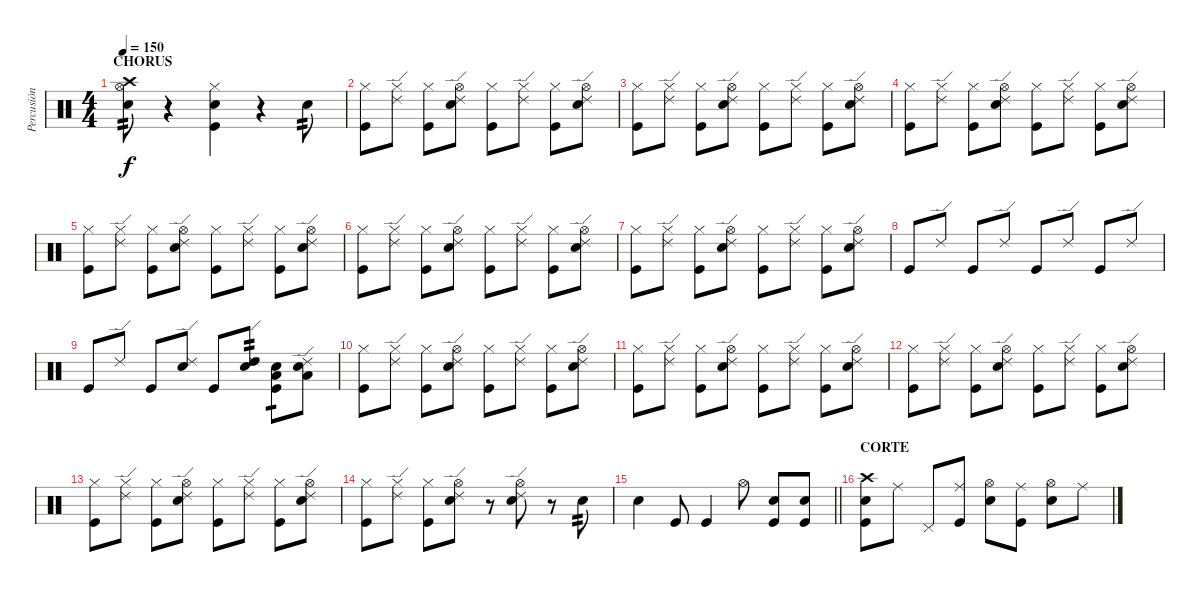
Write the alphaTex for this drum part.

\track ("Percusión" "Percusión") {instrument percussion}
\staff {score}
\articulation defaults
\ts (4 4)
\section ("" "CHORUS")
\tempo 150
\clef neutral
\ks c
("Crash high (hit)" "Snare (hit) 2" "Hi-Hat (open)").8{tp 2 dy f} r.4 ("Kick (hit)" "Snare (hit) 2" "Hi-Hat (closed)").4 r.4 "Snare (hit) 2".8{tp 2} |
("Kick (hit)" "Hi-Hat (closed)").8 ("Ride (edge) 2" "Hi-Hat (closed)").8 ("Kick (hit)" "Hi-Hat (closed)").8 ("Ride (edge) 2" "Snare (hit) 2" "Hi-Hat (open)").8 ("Kick (hit)" "Hi-Hat (closed)").8 ("Ride (edge) 2" "Hi-Hat (closed)").8 ("Kick (hit)" "Hi-Hat (closed)").8 ("Ride (edge) 2" "Snare (hit) 2" "Hi-Hat (open)").8 |
("Kick (hit)" "Hi-Hat (closed)").8 ("Ride (edge) 2" "Hi-Hat (closed)").8 ("Kick (hit)" "Hi-Hat (closed)").8 ("Ride (edge) 2" "Snare (hit) 2" "Hi-Hat (open)").8 ("Kick (hit)" "Hi-Hat (closed)").8 ("Ride (edge) 2" "Hi-Hat (closed)").8 ("Kick (hit)" "Hi-Hat (closed)").8 ("Ride (edge) 2" "Snare (hit) 2" "Hi-Hat (open)").8 |
("Kick (hit)" "Hi-Hat (closed)").8 ("Ride (edge) 2" "Hi-Hat (closed)").8 ("Kick (hit)" "Hi-Hat (closed)").8 ("Ride (edge) 2" "Snare (hit) 2" "Hi-Hat (open)").8 ("Kick (hit)" "Hi-Hat (closed)").8 ("Ride (edge) 2" "Hi-Hat (closed)").8 ("Kick (hit)" "Hi-Hat (closed)").8 ("Ride (edge) 2" "Snare (hit) 2" "Hi-Hat (open)").8 |
("Kick (hit)" "Hi-Hat (closed)").8 ("Ride (edge) 2" "Hi-Hat (closed)").8 ("Kick (hit)" "Hi-Hat (closed)").8 ("Ride (edge) 2" "Snare (hit) 2" "Hi-Hat (open)").8 ("Kick (hit)" "Hi-Hat (closed)").8 ("Ride (edge) 2" "Hi-Hat (closed)").8 ("Kick (hit)" "Hi-Hat (closed)").8 ("Ride (edge) 2" "Snare (hit) 2" "Hi-Hat (open)").8 |
("Kick (hit)" "Hi-Hat (closed)").8 ("Ride (edge) 2" "Hi-Hat (closed)").8 ("Kick (hit)" "Hi-Hat (closed)").8 ("Ride (edge) 2" "Snare (hit) 2" "Hi-Hat (open)").8 ("Kick (hit)" "Hi-Hat (closed)").8 ("Ride (edge) 2" "Hi-Hat (closed)").8 ("Kick (hit)" "Hi-Hat (closed)").8 ("Ride (edge) 2" "Snare (hit) 2" "Hi-Hat (open)").8 |
("Kick (hit)" "Hi-Hat (closed)").8 ("Ride (edge) 2" "Hi-Hat (closed)").8 ("Kick (hit)" "Hi-Hat (closed)").8 ("Ride (edge) 2" "Snare (hit) 2" "Hi-Hat (open)").8 ("Kick (hit)" "Hi-Hat (closed)").8 ("Ride (edge) 2" "Hi-Hat (closed)").8 ("Kick (hit)" "Hi-Hat (closed)").8 ("Ride (edge) 2" "Snare (hit) 2" "Hi-Hat (open)").8 |
"Kick (hit)".8 "Ride (edge) 2".8 "Kick (hit)".8 "Ride (edge) 2".8 "Kick (hit)".8 "Ride (edge) 2".8 "Kick (hit)".8 "Ride (edge) 2".8 |
"Kick (hit)".8 "Ride (edge) 2".8 "Kick (hit)".8 ("Ride (edge) 2" "Snare (hit) 2").8 "Kick (hit)".8 ("Ride (edge) 2" "High Tom (hit)" "Snare (hit) 2").8{tp 2} ("Low Tom (hit)" "Kick (hit)" "Snare (hit) 2").8{tp 1} ("Ride (edge) 2" "Low Floor Tom (hit)" "Snare (hit) 2").8 |
("Kick (hit)" "Hi-Hat (closed)").8 ("Ride (edge) 2" "Hi-Hat (closed)").8 ("Kick (hit)" "Hi-Hat (closed)").8 ("Ride (edge) 2" "Snare (hit) 2" "Hi-Hat (open)").8 ("Kick (hit)" "Hi-Hat (closed)").8 ("Ride (edge) 2" "Hi-Hat (closed)").8 ("Kick (hit)" "Hi-Hat (closed)").8 ("Ride (edge) 2" "Snare (hit) 2" "Hi-Hat (open)").8 |
("Kick (hit)" "Hi-Hat (closed)").8 ("Ride (edge) 2" "Hi-Hat (closed)").8 ("Kick (hit)" "Hi-Hat (closed)").8 ("Ride (edge) 2" "Snare (hit) 2" "Hi-Hat (open)").8 ("Kick (hit)" "Hi-Hat (closed)").8 ("Ride (edge) 2" "Hi-Hat (closed)").8 ("Kick (hit)" "Hi-Hat (closed)").8 ("Ride (edge) 2" "Snare (hit) 2" "Hi-Hat (open)").8 |
("Kick (hit)" "Hi-Hat (closed)").8 ("Ride (edge) 2" "Hi-Hat (closed)").8 ("Kick (hit)" "Hi-Hat (closed)").8 ("Ride (edge) 2" "Snare (hit) 2" "Hi-Hat (open)").8 ("Kick (hit)" "Hi-Hat (closed)").8 ("Ride (edge) 2" "Hi-Hat (closed)").8 ("Kick (hit)" "Hi-Hat (closed)").8 ("Ride (edge) 2" "Snare (hit) 2" "Hi-Hat (open)").8 |
("Kick (hit)" "Hi-Hat (closed)").8 ("Ride (edge) 2" "Hi-Hat (closed)").8 ("Kick (hit)" "Hi-Hat (closed)").8 ("Ride (edge) 2" "Snare (hit) 2" "Hi-Hat (open)").8 ("Kick (hit)" "Hi-Hat (closed)").8 ("Ride (edge) 2" "Hi-Hat (closed)").8 ("Kick (hit)" "Hi-Hat (closed)").8 ("Ride (edge) 2" "Snare (hit) 2" "Hi-Hat (open)").8 |
("Kick (hit)" "Hi-Hat (closed)").8 ("Ride (edge) 2" "Hi-Hat (closed)").8 ("Kick (hit)" "Hi-Hat (closed)").8 ("Ride (edge) 2" "Snare (hit) 2" "Hi-Hat (open)").8 r.8 ("Ride (edge) 2" "Snare (hit) 2" "Hi-Hat (open)").8 r.8 "Snare (hit) 2".8{tp 2} |
\barLineRight lightlight "Snare (hit) 2".4 "Kick (hit)".8 "Kick (hit)".4 "Hi-Hat (open)".8
("Kick (hit)" "Snare (hit) 2").8 ("Kick (hit)" "Snare (hit) 2").8 |
\section ("" "CORTE")
("Crash high (hit)" "Kick (hit)" "Snare (hit) 2").8 "Ride (middle)".8 "Pedal Hi-Hat (hit)".8 ("Kick (hit)" "Ride (middle)").8 ("Snare (hit) 2" "Hi-Hat (open)").8 ("Kick (hit)" "Ride (middle)").8 ("Snare (hit) 2" "Hi-Hat (open)").8 "Ride (middle)".8
